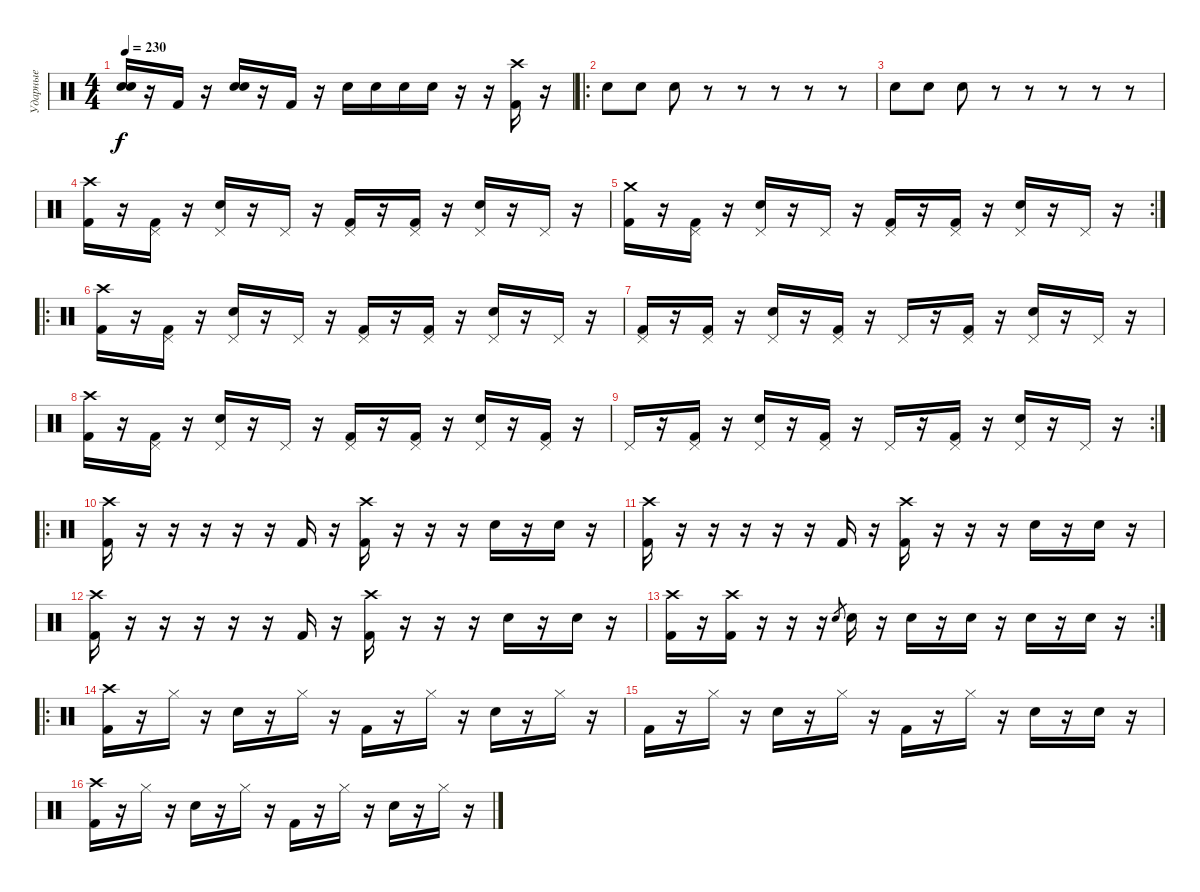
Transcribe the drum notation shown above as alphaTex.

\track ("Ударные" "Ударные") {instrument percussion}
\staff
\articulation defaults
\ts (4 4)
\tempo 230
\clef neutral
\ks c
("Electric Snare (hit)" "Electric Snare (hit)").16{dy f} r.16 "Kick (hit) 2".16 r.16 ("Electric Snare (hit)" "Electric Snare (hit)").16 r.16 "Kick (hit) 2".16 r.16 "Electric Snare (hit)".16 "Electric Snare (hit)".16 "Electric Snare (hit)".16 "Electric Snare (hit)".16 r.16 r.16 ("Crash high (hit)" "Kick (hit) 2").16 r.16 |
\ro "Electric Snare (hit)".8 "Electric Snare (hit)".8 "Electric Snare (hit)".8
r.8 r.8 r.8 r.8 r.8 |
"Electric Snare (hit)".8 "Electric Snare (hit)".8 "Electric Snare (hit)".8 r.8 r.8 r.8 r.8 r.8 |
("Crash high (hit)" "Kick (hit) 2").16 r.16 ("Pedal Hi-Hat (hit)" "Kick (hit) 2").16 r.16 ("Pedal Hi-Hat (hit)" "Electric Snare (hit)").16 r.16 "Pedal Hi-Hat (hit)".16 r.16 ("Pedal Hi-Hat (hit)" "Kick (hit) 2").16 r.16 ("Pedal Hi-Hat (hit)" "Kick (hit) 2").16 r.16 ("Pedal Hi-Hat (hit)" "Electric Snare (hit)").16 r.16 "Pedal Hi-Hat (hit)".16 r.16 |
\rc 2
("Crash medium (hit)" "Kick (hit) 2").16 r.16 ("Pedal Hi-Hat (hit)" "Kick (hit) 2").16 r.16 ("Pedal Hi-Hat (hit)" "Electric Snare (hit)").16 r.16 "Pedal Hi-Hat (hit)".16 r.16 ("Pedal Hi-Hat (hit)" "Kick (hit) 2").16 r.16 ("Pedal Hi-Hat (hit)" "Kick (hit) 2").16 r.16 ("Pedal Hi-Hat (hit)" "Electric Snare (hit)").16 r.16 "Pedal Hi-Hat (hit)".16 r.16 |
\ro
("Crash high (hit)" "Kick (hit) 2").16 r.16 ("Pedal Hi-Hat (hit)" "Kick (hit) 2").16 r.16 ("Pedal Hi-Hat (hit)" "Electric Snare (hit)").16 r.16 "Pedal Hi-Hat (hit)".16 r.16 ("Pedal Hi-Hat (hit)" "Kick (hit) 2").16 r.16 ("Pedal Hi-Hat (hit)" "Kick (hit) 2").16 r.16 ("Pedal Hi-Hat (hit)" "Electric Snare (hit)").16 r.16 "Pedal Hi-Hat (hit)".16 r.16 |
("Pedal Hi-Hat (hit)" "Kick (hit) 2").16 r.16 ("Pedal Hi-Hat (hit)" "Kick (hit) 2").16 r.16 ("Pedal Hi-Hat (hit)" "Electric Snare (hit)").16 r.16 ("Pedal Hi-Hat (hit)" "Kick (hit) 2").16 r.16 "Pedal Hi-Hat (hit)".16 r.16 ("Pedal Hi-Hat (hit)" "Kick (hit) 2").16 r.16 ("Pedal Hi-Hat (hit)" "Electric Snare (hit)").16 r.16 "Pedal Hi-Hat (hit)".16 r.16 |
("Crash high (hit)" "Kick (hit) 2").16 r.16 ("Pedal Hi-Hat (hit)" "Kick (hit) 2").16 r.16 ("Pedal Hi-Hat (hit)" "Electric Snare (hit)").16 r.16 "Pedal Hi-Hat (hit)".16 r.16 ("Pedal Hi-Hat (hit)" "Kick (hit) 2").16 r.16 ("Pedal Hi-Hat (hit)" "Kick (hit) 2").16 r.16 ("Pedal Hi-Hat (hit)" "Electric Snare (hit)").16 r.16 ("Pedal Hi-Hat (hit)" "Kick (hit) 2").16 r.16 |
\rc 2 "Pedal Hi-Hat (hit)".16
r.16 ("Pedal Hi-Hat (hit)" "Kick (hit) 2").16 r.16 ("Pedal Hi-Hat (hit)" "Electric Snare (hit)").16 r.16 ("Pedal Hi-Hat (hit)" "Kick (hit) 2").16 r.16 "Pedal Hi-Hat (hit)".16 r.16 ("Pedal Hi-Hat (hit)" "Kick (hit) 2").16 r.16 ("Pedal Hi-Hat (hit)" "Electric Snare (hit)").16 r.16 "Pedal Hi-Hat (hit)".16 r.16 |
\ro
("Crash high (hit)" "Kick (hit) 2").16 r.16 r.16 r.16 r.16 r.16 "Kick (hit) 2".16 r.16 ("Crash high (hit)" "Kick (hit) 2").16 r.16 r.16 r.16 "Electric Snare (hit)".16 r.16 "Electric Snare (hit)".16 r.16 |
("Crash high (hit)" "Kick (hit) 2").16 r.16 r.16 r.16 r.16 r.16 "Kick (hit) 2".16 r.16 ("Crash high (hit)" "Kick (hit) 2").16 r.16 r.16 r.16 "Electric Snare (hit)".16 r.16 "Electric Snare (hit)".16 r.16 |
("Crash high (hit)" "Kick (hit) 2").16 r.16 r.16 r.16 r.16 r.16 "Kick (hit) 2".16 r.16 ("Crash high (hit)" "Kick (hit) 2").16 r.16 r.16 r.16 "Electric Snare (hit)".16 r.16 "Electric Snare (hit)".16 r.16 |
\rc 2
("Crash high (hit)" "Kick (hit) 2").16 r.16 ("Crash high (hit)" "Kick (hit) 2").16 r.16 r.16 r.16 "Electric Snare (hit)".8{gr} "Electric Snare (hit)".16 r.16 "Electric Snare (hit)".16 r.16 "Electric Snare (hit)".16 r.16 "Electric Snare (hit)".16 r.16 "Electric Snare (hit)".16 r.16 |
\ro
("Crash high (hit)" "Kick (hit) 2").16 r.16 "Hi-Hat (closed)".16 r.16 "Electric Snare (hit)".16 r.16 "Hi-Hat (closed)".16 r.16 "Kick (hit) 2".16 r.16 "Hi-Hat (closed)".16 r.16 "Electric Snare (hit)".16 r.16 "Hi-Hat (closed)".16 r.16 |
"Kick (hit) 2".16 r.16 "Hi-Hat (closed)".16 r.16 "Electric Snare (hit)".16 r.16 "Hi-Hat (closed)".16 r.16 "Kick (hit) 2".16 r.16 "Hi-Hat (closed)".16 r.16 "Electric Snare (hit)".16 r.16 "Electric Snare (hit)".16 r.16 |
("Crash high (hit)" "Kick (hit) 2").16 r.16 "Hi-Hat (closed)".16 r.16 "Electric Snare (hit)".16 r.16 "Hi-Hat (closed)".16 r.16 "Kick (hit) 2".16 r.16 "Hi-Hat (closed)".16 r.16 "Electric Snare (hit)".16 r.16 "Hi-Hat (closed)".16 r.16
